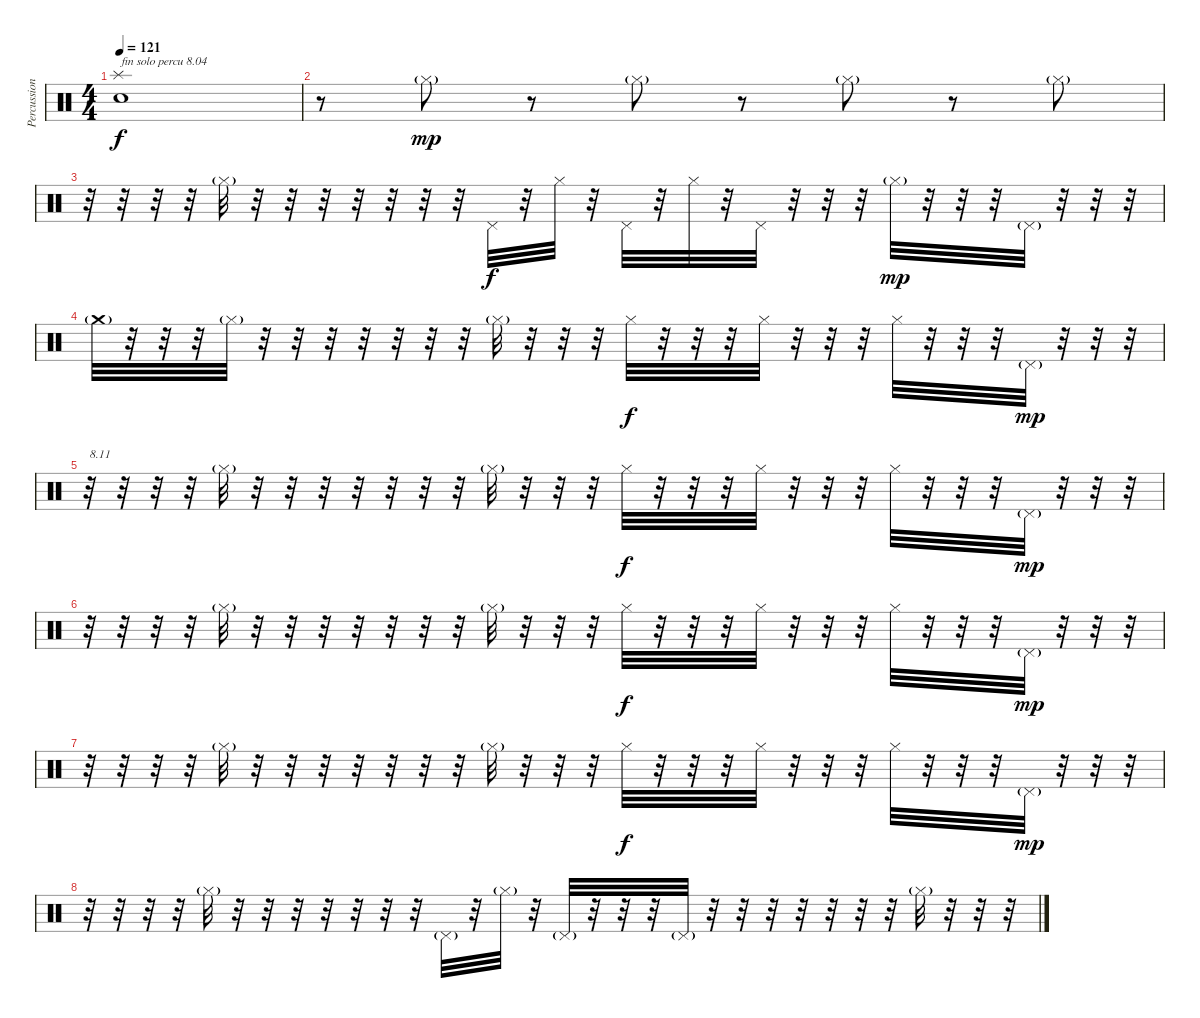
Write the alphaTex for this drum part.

\track ("Percussions" "Percussion") {instrument percussion}
\staff {score}
\articulation defaults
\ts (4 4)
\tempo 121
\clef neutral
\ks c
("Electric Snare (hit)" "Splash (hit)").1{txt "fin solo percu 8.04" dy f} |
r.8 "Hi-Hat (closed)"{g}.8{dy mp} r.8 "Hi-Hat (closed)"{g}.8 r.8 "Hi-Hat (closed)"{g}.8 r.8 "Hi-Hat (closed)"{g}.8 |
r.32 r.32 r.32 r.32 "Hi-Hat (closed)"{g}.32 r.32 r.32 r.32 r.32 r.32 r.32 r.32 "Pedal Hi-Hat (hit)".32{dy f} r.32 "Hi-Hat (closed)".32 r.32 "Pedal Hi-Hat (hit)".32 r.32 "Hi-Hat (closed)".32 r.32 "Pedal Hi-Hat (hit)".32 r.32 r.32 r.32 "Hi-Hat (closed)"{g}.32{dy mp} r.32 r.32 r.32 "Pedal Hi-Hat (hit)"{g}.32 r.32 r.32 r.32 |
"Crash medium (hit)"{g}.32 r.32 r.32 r.32 "Hi-Hat (closed)"{g}.32 r.32 r.32 r.32 r.32 r.32 r.32 r.32 "Hi-Hat (closed)"{g}.32 r.32 r.32 r.32 "Hi-Hat (closed)".32{dy f} r.32 r.32 r.32 "Hi-Hat (closed)".32 r.32 r.32 r.32 "Hi-Hat (closed)".32 r.32 r.32 r.32 "Pedal Hi-Hat (hit)"{g}.32{dy mp} r.32 r.32 r.32 |
r.32{txt "8.11"} r.32 r.32 r.32 "Hi-Hat (closed)"{g}.32 r.32 r.32 r.32 r.32 r.32 r.32 r.32 "Hi-Hat (closed)"{g}.32 r.32 r.32 r.32 "Hi-Hat (closed)".32{dy f} r.32 r.32 r.32 "Hi-Hat (closed)".32 r.32 r.32 r.32 "Hi-Hat (closed)".32 r.32 r.32 r.32 "Pedal Hi-Hat (hit)"{g}.32{dy mp} r.32 r.32 r.32 |
r.32 r.32 r.32 r.32 "Hi-Hat (closed)"{g}.32 r.32 r.32 r.32 r.32 r.32 r.32 r.32 "Hi-Hat (closed)"{g}.32 r.32 r.32 r.32 "Hi-Hat (closed)".32{dy f} r.32 r.32 r.32 "Hi-Hat (closed)".32 r.32 r.32 r.32 "Hi-Hat (closed)".32 r.32 r.32 r.32 "Pedal Hi-Hat (hit)"{g}.32{dy mp} r.32 r.32 r.32 |
r.32 r.32 r.32 r.32 "Hi-Hat (closed)"{g}.32 r.32 r.32 r.32 r.32 r.32 r.32 r.32 "Hi-Hat (closed)"{g}.32 r.32 r.32 r.32 "Hi-Hat (closed)".32{dy f} r.32 r.32 r.32 "Hi-Hat (closed)".32 r.32 r.32 r.32 "Hi-Hat (closed)".32 r.32 r.32 r.32 "Pedal Hi-Hat (hit)"{g}.32{dy mp} r.32 r.32 r.32 |
r.32 r.32 r.32 r.32 "Hi-Hat (closed)"{g}.32 r.32 r.32 r.32 r.32 r.32 r.32 r.32 "Pedal Hi-Hat (hit)"{g}.32 r.32 "Hi-Hat (closed)"{g}.32 r.32 "Pedal Hi-Hat (hit)"{g}.32 r.32 r.32 r.32 "Pedal Hi-Hat (hit)"{g}.32 r.32 r.32 r.32 r.32 r.32 r.32 r.32 "Hi-Hat (closed)"{g}.32 r.32 r.32 r.32
